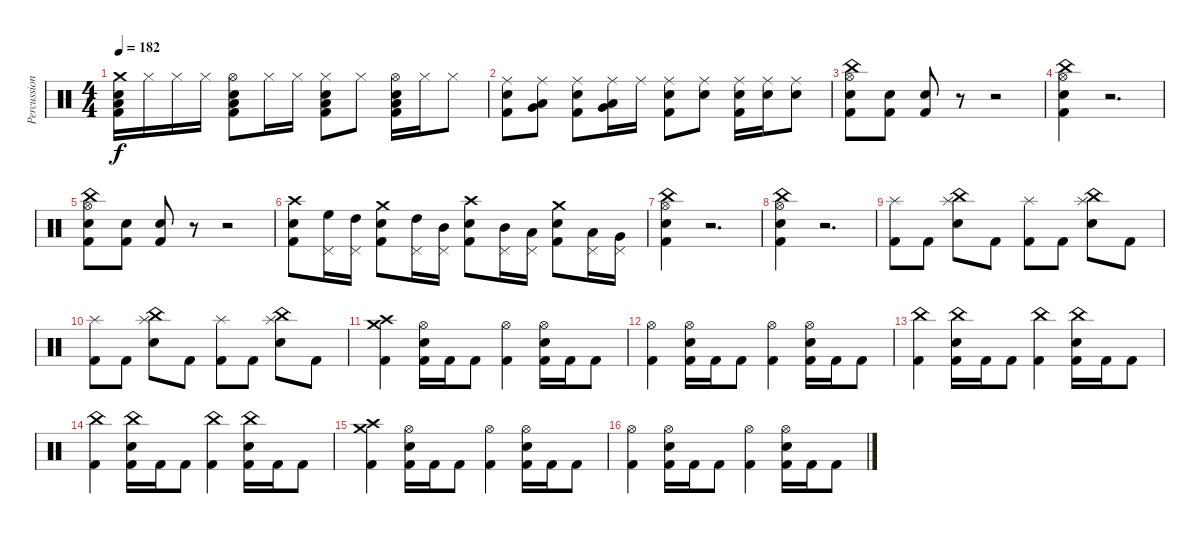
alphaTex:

\track ("Percussion" "Percussion") {instrument percussion}
\staff {score}
\articulation defaults
\ts (4 4)
\tempo 182
\clef neutral
\ks c
("Crash medium (hit)" "Snare (hit) 2" "Low Floor Tom (hit)" "Kick (hit) 2").16{dy f} "Hi-Hat (closed)".16 "Hi-Hat (closed)".16 "Hi-Hat (closed)".16 ("Hi-Hat (open)" "Snare (hit) 2" "Low Floor Tom (hit)" "Kick (hit) 2").8 "Hi-Hat (closed)".16 "Hi-Hat (closed)".16 ("Hi-Hat (closed)" "Snare (hit) 2" "Low Floor Tom (hit)" "Kick (hit) 2").8 "Hi-Hat (closed)".8 ("Hi-Hat (open)" "Snare (hit) 2" "Low Floor Tom (hit)" "Kick (hit) 2").16 "Hi-Hat (closed)".16 "Hi-Hat (closed)".8 |
("Ride (middle)" "Snare (hit) 2" "Kick (hit) 2").8 ("Ride (middle)" "Very Low Tom (hit)" "Low Floor Tom (hit)").8 ("Ride (middle)" "Snare (hit) 2" "Kick (hit) 2").8 ("Ride (middle)" "Very Low Tom (hit)" "Low Floor Tom (hit)").16 "Ride (middle)".16 ("Ride (middle)" "Snare (hit) 2" "Kick (hit) 2").8 ("Ride (middle)" "Snare (hit) 2").8 ("Ride (middle)" "Snare (hit) 2" "Kick (hit) 2").16 ("Ride (middle)" "Snare (hit) 2").16 ("Ride (middle)" "Snare (hit) 2").8 |
("Hi-Hat (open)" "China (hit)" "Snare (hit) 2" "Kick (hit) 2").8 ("Snare (hit) 2" "Kick (hit) 2").8 ("Snare (hit) 2" "Kick (hit) 2").8 r.8 r.2 |
("Hi-Hat (open)" "China (hit)" "Snare (hit) 2" "Kick (hit) 2").4 r.2{d} |
("Hi-Hat (open)" "China (hit)" "Snare (hit) 2" "Kick (hit) 2").8 ("Snare (hit) 2" "Kick (hit) 2").8 ("Snare (hit) 2" "Kick (hit) 2").8 r.8 r.2 |
("Crash high (hit)" "Snare (hit) 2" "Kick (hit) 2").8 ("Pedal Hi-Hat (hit)" "High Floor Tom (hit)").16 ("Pedal Hi-Hat (hit)" "High Tom (hit)").16 ("Crash medium (hit)" "Snare (hit) 2" "Kick (hit) 2").8 ("Pedal Hi-Hat (hit)" "High Tom (hit)").16 ("Pedal Hi-Hat (hit)" "Mid Tom (hit)").16 ("Crash high (hit)" "Snare (hit) 2" "Kick (hit) 2").8 ("Pedal Hi-Hat (hit)" "Mid Tom (hit)").16 ("Pedal Hi-Hat (hit)" "Low Tom (hit)").16 ("Crash medium (hit)" "Snare (hit) 2" "Kick (hit) 2").8 ("Pedal Hi-Hat (hit)" "Low Tom (hit)").16 ("Pedal Hi-Hat (hit)" "Very Low Tom (hit)").16 |
("Hi-Hat (open)" "China (hit)" "Snare (hit) 2" "Kick (hit) 2").4 r.2{d} |
("Hi-Hat (open)" "China (hit)" "Snare (hit) 2" "Kick (hit) 2").4 r.2{d} |
("Splash (hit)" "Kick (hit) 2").8 "Kick (hit) 2".8 ("Splash (hit)" "China (hit)" "Snare (hit) 2").8 "Kick (hit) 2".8 ("Splash (hit)" "Kick (hit) 2").8 "Kick (hit) 2".8 ("Splash (hit)" "China (hit)" "Snare (hit) 2").8 "Kick (hit) 2".8 |
("Splash (hit)" "Kick (hit) 2").8 "Kick (hit) 2".8 ("Splash (hit)" "China (hit)" "Snare (hit) 2").8 "Kick (hit) 2".8 ("Splash (hit)" "Kick (hit) 2").8 "Kick (hit) 2".8 ("Splash (hit)" "China (hit)" "Snare (hit) 2").8 "Kick (hit) 2".8 |
("Crash high (hit)" "Crash medium (hit)" "Kick (hit) 2").4 ("Hi-Hat (open)" "Snare (hit) 2" "Kick (hit) 2").16 "Kick (hit) 2".16 "Kick (hit) 2".8 ("Hi-Hat (open)" "Kick (hit) 2").4 ("Hi-Hat (open)" "Snare (hit) 2" "Kick (hit) 2").16 "Kick (hit) 2".16 "Kick (hit) 2".8 |
("Hi-Hat (open)" "Kick (hit) 2").4 ("Hi-Hat (open)" "Snare (hit) 2" "Kick (hit) 2").16 "Kick (hit) 2".16 "Kick (hit) 2".8 ("Hi-Hat (open)" "Kick (hit) 2").4 ("Hi-Hat (open)" "Snare (hit) 2" "Kick (hit) 2").16 "Kick (hit) 2".16 "Kick (hit) 2".8 |
("China (hit)" "Kick (hit) 2").4 ("China (hit)" "Snare (hit) 2" "Kick (hit) 2").16 "Kick (hit) 2".16 "Kick (hit) 2".8 ("China (hit)" "Kick (hit) 2").4 ("China (hit)" "Snare (hit) 2" "Kick (hit) 2").16 "Kick (hit) 2".16 "Kick (hit) 2".8 |
("China (hit)" "Kick (hit) 2").4 ("China (hit)" "Snare (hit) 2" "Kick (hit) 2").16 "Kick (hit) 2".16 "Kick (hit) 2".8 ("China (hit)" "Kick (hit) 2").4 ("China (hit)" "Snare (hit) 2" "Kick (hit) 2").16 "Kick (hit) 2".16 "Kick (hit) 2".8 |
("Crash high (hit)" "Crash medium (hit)" "Kick (hit) 2").4 ("Hi-Hat (open)" "Snare (hit) 2" "Kick (hit) 2").16 "Kick (hit) 2".16 "Kick (hit) 2".8 ("Hi-Hat (open)" "Kick (hit) 2").4 ("Hi-Hat (open)" "Snare (hit) 2" "Kick (hit) 2").16 "Kick (hit) 2".16 "Kick (hit) 2".8 |
("Hi-Hat (open)" "Kick (hit) 2").4 ("Hi-Hat (open)" "Snare (hit) 2" "Kick (hit) 2").16 "Kick (hit) 2".16 "Kick (hit) 2".8 ("Hi-Hat (open)" "Kick (hit) 2").4 ("Hi-Hat (open)" "Snare (hit) 2" "Kick (hit) 2").16 "Kick (hit) 2".16 "Kick (hit) 2".8
